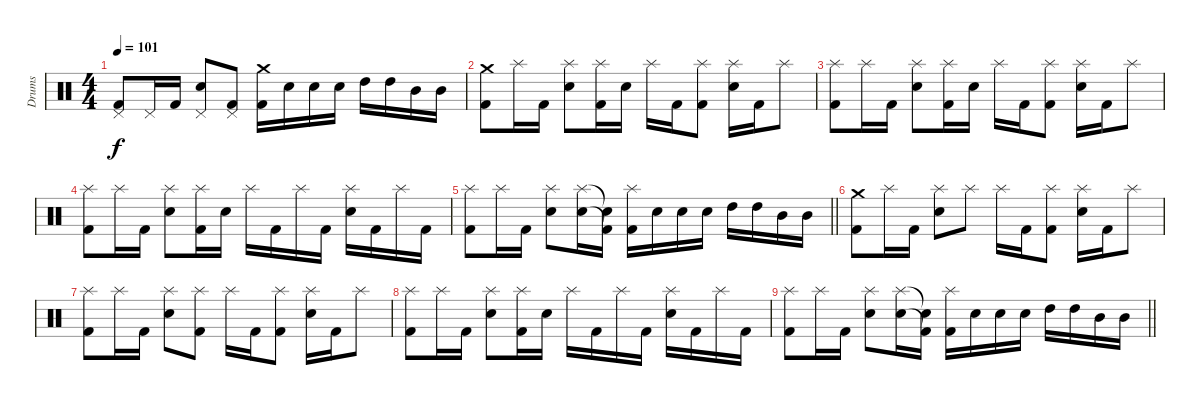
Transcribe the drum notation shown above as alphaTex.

\track ("Drums" "Drums") {instrument percussion}
\staff {score}
\articulation defaults
\ts (4 4)
\tempo 101
\clef neutral
\ks c
("Pedal Hi-Hat (hit)" "Kick (hit) 2").8{dy f} "Pedal Hi-Hat (hit)".16 "Kick (hit) 2".16 ("Pedal Hi-Hat (hit)" "Electric Snare (hit)").8 ("Pedal Hi-Hat (hit)" "Kick (hit) 2").8 ("Crash medium (hit)" "Kick (hit) 2").16 "Electric Snare (hit)".16 "Electric Snare (hit)".16 "Electric Snare (hit)".16 "High Tom (hit)".16 "High Tom (hit)".16 "Mid Tom (hit)".16 "Mid Tom (hit)".16 |
("Crash medium (hit)" "Kick (hit) 2").8 "Splash (hit)".16 "Kick (hit) 2".16 ("Splash (hit)" "Electric Snare (hit)").8 ("Splash (hit)" "Kick (hit) 2").16 "Electric Snare (hit)".16 "Splash (hit)".16 "Kick (hit) 2".16 ("Splash (hit)" "Kick (hit) 2").8 ("Splash (hit)" "Electric Snare (hit)").16 "Kick (hit) 2".16 "Splash (hit)".8 |
("Splash (hit)" "Kick (hit) 2").8 "Splash (hit)".16 "Kick (hit) 2".16 ("Splash (hit)" "Electric Snare (hit)").8 ("Splash (hit)" "Kick (hit) 2").16 "Electric Snare (hit)".16 "Splash (hit)".16 "Kick (hit) 2".16 ("Splash (hit)" "Kick (hit) 2").8 ("Splash (hit)" "Electric Snare (hit)").16 "Kick (hit) 2".16 "Splash (hit)".8 |
("Splash (hit)" "Kick (hit) 2").8 "Splash (hit)".16 "Kick (hit) 2".16 ("Splash (hit)" "Electric Snare (hit)").8 ("Splash (hit)" "Kick (hit) 2").16 "Electric Snare (hit)".16 "Splash (hit)".16 "Kick (hit) 2".16 "Splash (hit)".16 "Kick (hit) 2".16 ("Splash (hit)" "Electric Snare (hit)").16 "Kick (hit) 2".16 "Splash (hit)".16 "Kick (hit) 2".16 |
\barLineRight lightlight
("Splash (hit)" "Kick (hit) 2").8 "Splash (hit)".16 "Kick (hit) 2".16 ("Splash (hit)" "Electric Snare (hit)").8 ("Splash (hit)" "Electric Snare (hit)").16 ("Snare (hit)"{t} "Kick (hit) 2"{t}).16 ("Splash (hit)" "Kick (hit) 2").16 "Electric Snare (hit)".16 "Electric Snare (hit)".16 "Electric Snare (hit)".16 "High Tom (hit)".16 "High Tom (hit)".16 "Mid Tom (hit)".16 "Mid Tom (hit)".16 |
("Crash medium (hit)" "Kick (hit) 2").8 "Splash (hit)".16 "Kick (hit) 2".16 ("Splash (hit)" "Electric Snare (hit)").8 "Splash (hit)".8 "Splash (hit)".16 "Kick (hit) 2".16 ("Splash (hit)" "Kick (hit) 2").8 ("Splash (hit)" "Electric Snare (hit)").16 "Kick (hit) 2".16 "Splash (hit)".8 |
("Splash (hit)" "Kick (hit) 2").8 "Splash (hit)".16 "Kick (hit) 2".16 ("Splash (hit)" "Electric Snare (hit)").8 ("Splash (hit)" "Kick (hit) 2").8 "Splash (hit)".16 "Kick (hit) 2".16 ("Splash (hit)" "Kick (hit) 2").8 ("Splash (hit)" "Electric Snare (hit)").16 "Kick (hit) 2".16 "Splash (hit)".8 |
("Splash (hit)" "Kick (hit) 2").8 "Splash (hit)".16 "Kick (hit) 2".16 ("Splash (hit)" "Electric Snare (hit)").8 ("Splash (hit)" "Kick (hit) 2").16 "Electric Snare (hit)".16 "Splash (hit)".16 "Kick (hit) 2".16 "Splash (hit)".16 "Kick (hit) 2".16 ("Splash (hit)" "Electric Snare (hit)").16 "Kick (hit) 2".16 "Splash (hit)".16 "Kick (hit) 2".16 |
\barLineRight lightlight
("Splash (hit)" "Kick (hit) 2").8 "Splash (hit)".16 "Kick (hit) 2".16 ("Splash (hit)" "Electric Snare (hit)").8 ("Splash (hit)" "Electric Snare (hit)").16 ("Snare (hit)"{t} "Kick (hit) 2"{t}).16 ("Splash (hit)" "Kick (hit) 2").16 "Electric Snare (hit)".16 "Electric Snare (hit)".16 "Electric Snare (hit)".16 "High Tom (hit)".16 "High Tom (hit)".16 "Mid Tom (hit)".16 "Mid Tom (hit)".16
